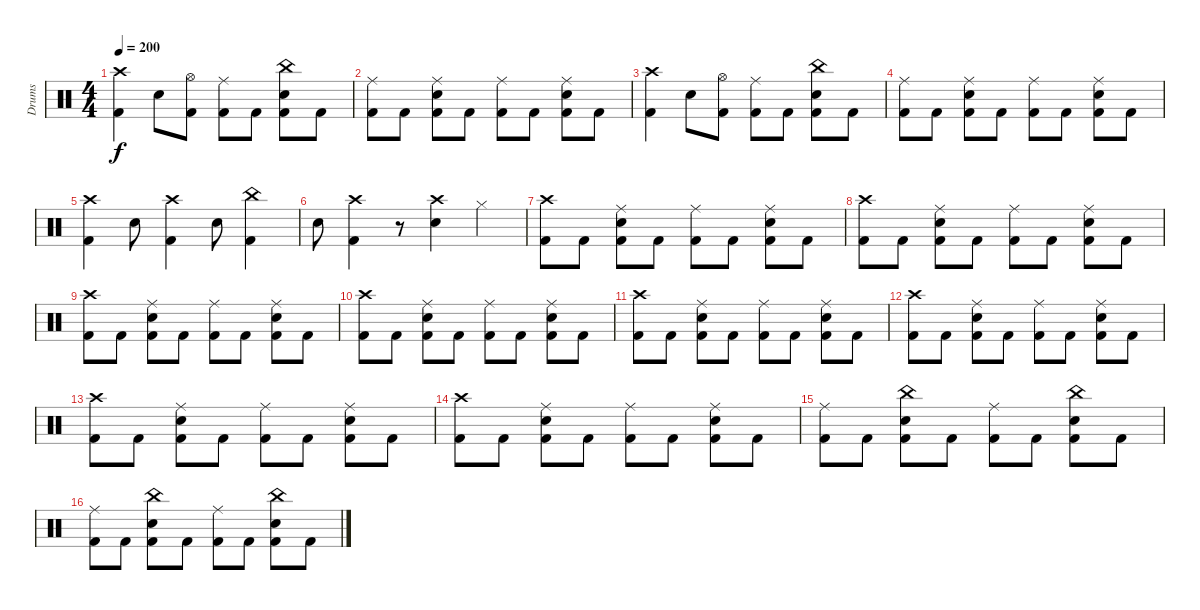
\track ("Drums" "Drums") {instrument percussion}
\staff {score}
\articulation defaults
\ts (4 4)
\tempo 200
\clef neutral
\ks c
("Crash high (hit)" "Kick (hit) 2").4{dy f} "Snare (hit) 2".8 ("Hi-Hat (open)" "Kick (hit) 2").8 ("Ride (middle)" "Kick (hit) 2").8 "Kick (hit) 2".8 ("China (hit)" "Snare (hit) 2" "Kick (hit) 2").8 "Kick (hit) 2".8 |
("Ride (middle)" "Kick (hit) 2").8 "Kick (hit) 2".8 ("Ride (middle)" "Snare (hit) 2" "Kick (hit) 2").8 "Kick (hit) 2".8 ("Ride (middle)" "Kick (hit) 2").8 "Kick (hit) 2".8 ("Ride (middle)" "Snare (hit) 2" "Kick (hit) 2").8 "Kick (hit) 2".8 |
("Crash high (hit)" "Kick (hit) 2").4 "Snare (hit) 2".8 ("Hi-Hat (open)" "Kick (hit) 2").8 ("Ride (middle)" "Kick (hit) 2").8 "Kick (hit) 2".8 ("China (hit)" "Snare (hit) 2" "Kick (hit) 2").8 "Kick (hit) 2".8 |
("Ride (middle)" "Kick (hit) 2").8 "Kick (hit) 2".8 ("Ride (middle)" "Snare (hit) 2" "Kick (hit) 2").8 "Kick (hit) 2".8 ("Ride (middle)" "Kick (hit) 2").8 "Kick (hit) 2".8 ("Ride (middle)" "Snare (hit) 2" "Kick (hit) 2").8 "Kick (hit) 2".8 |
("Crash high (hit)" "Kick (hit) 2").4 "Snare (hit) 2".8 ("Crash high (hit)" "Kick (hit) 2").4 "Snare (hit) 2".8 ("China (hit)" "Kick (hit) 2").4 |
"Snare (hit) 2".8 ("Crash high (hit)" "Kick (hit) 2").4 r.8 ("Crash high (hit)" "Snare (hit) 2").4 "Hi-Hat (closed)".4 |
("Crash high (hit)" "Kick (hit) 2").8 "Kick (hit) 2".8 ("Ride (middle)" "Snare (hit) 2" "Kick (hit) 2").8 "Kick (hit) 2".8 ("Ride (middle)" "Kick (hit) 2").8 "Kick (hit) 2".8 ("Ride (middle)" "Snare (hit) 2" "Kick (hit) 2").8 "Kick (hit) 2".8 |
("Crash high (hit)" "Kick (hit) 2").8 "Kick (hit) 2".8 ("Ride (middle)" "Snare (hit) 2" "Kick (hit) 2").8 "Kick (hit) 2".8 ("Ride (middle)" "Kick (hit) 2").8 "Kick (hit) 2".8 ("Ride (middle)" "Snare (hit) 2" "Kick (hit) 2").8 "Kick (hit) 2".8 |
("Crash high (hit)" "Kick (hit) 2").8 "Kick (hit) 2".8 ("Ride (middle)" "Snare (hit) 2" "Kick (hit) 2").8 "Kick (hit) 2".8 ("Ride (middle)" "Kick (hit) 2").8 "Kick (hit) 2".8 ("Ride (middle)" "Snare (hit) 2" "Kick (hit) 2").8 "Kick (hit) 2".8 |
("Crash high (hit)" "Kick (hit) 2").8 "Kick (hit) 2".8 ("Ride (middle)" "Snare (hit) 2" "Kick (hit) 2").8 "Kick (hit) 2".8 ("Ride (middle)" "Kick (hit) 2").8 "Kick (hit) 2".8 ("Ride (middle)" "Snare (hit) 2" "Kick (hit) 2").8 "Kick (hit) 2".8 |
("Crash high (hit)" "Kick (hit) 2").8 "Kick (hit) 2".8 ("Ride (middle)" "Snare (hit) 2" "Kick (hit) 2").8 "Kick (hit) 2".8 ("Ride (middle)" "Kick (hit) 2").8 "Kick (hit) 2".8 ("Ride (middle)" "Snare (hit) 2" "Kick (hit) 2").8 "Kick (hit) 2".8 |
("Crash high (hit)" "Kick (hit) 2").8 "Kick (hit) 2".8 ("Ride (middle)" "Snare (hit) 2" "Kick (hit) 2").8 "Kick (hit) 2".8 ("Ride (middle)" "Kick (hit) 2").8 "Kick (hit) 2".8 ("Ride (middle)" "Snare (hit) 2" "Kick (hit) 2").8 "Kick (hit) 2".8 |
("Crash high (hit)" "Kick (hit) 2").8 "Kick (hit) 2".8 ("Ride (middle)" "Snare (hit) 2" "Kick (hit) 2").8 "Kick (hit) 2".8 ("Ride (middle)" "Kick (hit) 2").8 "Kick (hit) 2".8 ("Ride (middle)" "Snare (hit) 2" "Kick (hit) 2").8 "Kick (hit) 2".8 |
("Crash high (hit)" "Kick (hit) 2").8 "Kick (hit) 2".8 ("Ride (middle)" "Snare (hit) 2" "Kick (hit) 2").8 "Kick (hit) 2".8 ("Ride (middle)" "Kick (hit) 2").8 "Kick (hit) 2".8 ("Ride (middle)" "Snare (hit) 2" "Kick (hit) 2").8 "Kick (hit) 2".8 |
("Ride (middle)" "Kick (hit) 2").8 "Kick (hit) 2".8 ("China (hit)" "Snare (hit) 2" "Kick (hit) 2").8 "Kick (hit) 2".8 ("Ride (middle)" "Kick (hit) 2").8 "Kick (hit) 2".8 ("China (hit)" "Snare (hit) 2" "Kick (hit) 2").8 "Kick (hit) 2".8 |
("Ride (middle)" "Kick (hit) 2").8 "Kick (hit) 2".8 ("China (hit)" "Snare (hit) 2" "Kick (hit) 2").8 "Kick (hit) 2".8 ("Ride (middle)" "Kick (hit) 2").8 "Kick (hit) 2".8 ("China (hit)" "Snare (hit) 2" "Kick (hit) 2").8 "Kick (hit) 2".8
